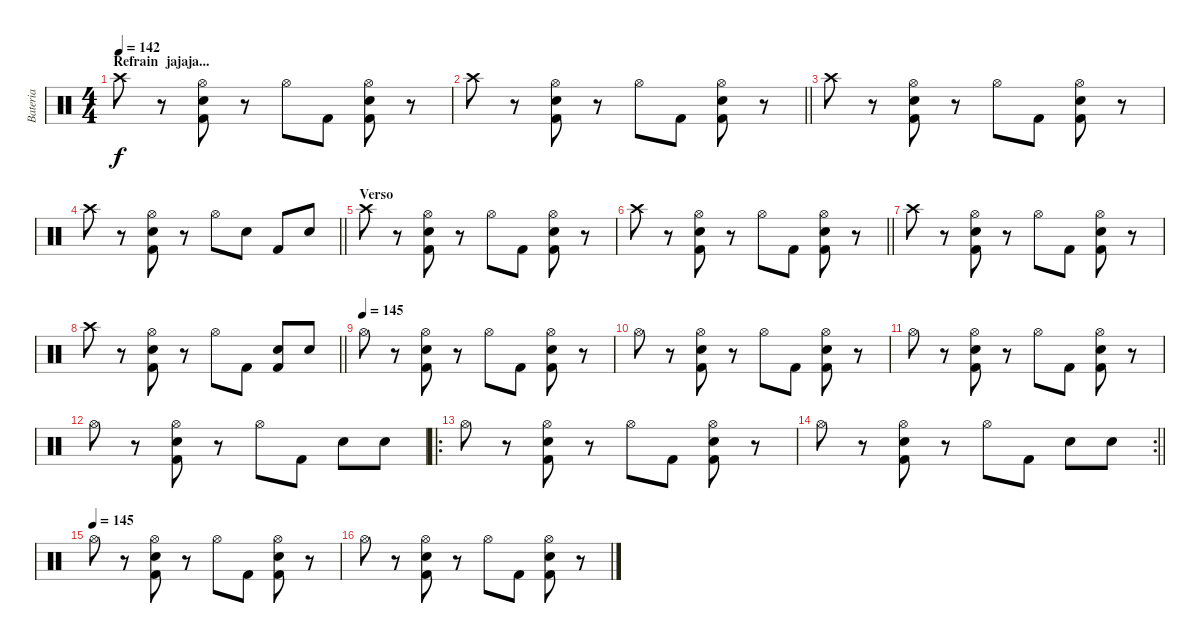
\track ("Bateria" "Bateria") {instrument percussion}
\staff {score}
\articulation defaults
\ts (4 4)
\section ("" "Refrain  jajaja...")
\tempo 142
\clef neutral
\ks c "Crash high (hit)".8{dy f}
r.8 ("Hi-Hat (open)" "Electric Snare (hit)" "Kick (hit) 2").8 r.8 "Hi-Hat (open)".8 "Kick (hit) 2".8 ("Hi-Hat (open)" "Electric Snare (hit)" "Kick (hit) 2").8 r.8 |
\barLineRight lightlight "Crash high (hit)".8
r.8 ("Hi-Hat (open)" "Electric Snare (hit)" "Kick (hit) 2").8 r.8 "Hi-Hat (open)".8 "Kick (hit) 2".8 ("Hi-Hat (open)" "Electric Snare (hit)" "Kick (hit) 2").8 r.8 |
"Crash high (hit)".8 r.8 ("Hi-Hat (open)" "Electric Snare (hit)" "Kick (hit) 2").8 r.8 "Hi-Hat (open)".8 "Kick (hit) 2".8 ("Hi-Hat (open)" "Electric Snare (hit)" "Kick (hit) 2").8 r.8 |
\barLineRight lightlight "Crash high (hit)".8
r.8 ("Hi-Hat (open)" "Electric Snare (hit)" "Kick (hit) 2").8 r.8 "Hi-Hat (open)".8 "Electric Snare (hit)".8 "Kick (hit) 2".8 "Electric Snare (hit)".8 |
\section ("" "Verso")
"Crash high (hit)".8 r.8 ("Hi-Hat (open)" "Electric Snare (hit)" "Kick (hit) 2").8 r.8 "Hi-Hat (open)".8 "Kick (hit) 2".8 ("Hi-Hat (open)" "Electric Snare (hit)" "Kick (hit) 2").8 r.8 |
\barLineRight lightlight "Crash high (hit)".8
r.8 ("Hi-Hat (open)" "Electric Snare (hit)" "Kick (hit) 2").8 r.8 "Hi-Hat (open)".8 "Kick (hit) 2".8 ("Hi-Hat (open)" "Electric Snare (hit)" "Kick (hit) 2").8 r.8 |
"Crash high (hit)".8 r.8 ("Hi-Hat (open)" "Electric Snare (hit)" "Kick (hit) 2").8 r.8 "Hi-Hat (open)".8 "Kick (hit) 2".8 ("Hi-Hat (open)" "Electric Snare (hit)" "Kick (hit) 2").8 r.8 |
\barLineRight lightlight "Crash high (hit)".8
r.8 ("Hi-Hat (open)" "Electric Snare (hit)" "Kick (hit) 2").8 r.8 "Hi-Hat (open)".8 "Kick (hit) 2".8 ("Electric Snare (hit)" "Kick (hit) 2").8 "Electric Snare (hit)".8 |
\tempo (145)
"Hi-Hat (open)".8 r.8 ("Hi-Hat (open)" "Electric Snare (hit)" "Kick (hit) 2").8 r.8 "Hi-Hat (open)".8 "Kick (hit) 2".8 ("Hi-Hat (open)" "Electric Snare (hit)" "Kick (hit) 2").8 r.8 |
"Hi-Hat (open)".8 r.8 ("Hi-Hat (open)" "Electric Snare (hit)" "Kick (hit) 2").8 r.8 "Hi-Hat (open)".8 "Kick (hit) 2".8 ("Hi-Hat (open)" "Electric Snare (hit)" "Kick (hit) 2").8 r.8 |
"Hi-Hat (open)".8 r.8 ("Hi-Hat (open)" "Electric Snare (hit)" "Kick (hit) 2").8 r.8 "Hi-Hat (open)".8 "Kick (hit) 2".8 ("Hi-Hat (open)" "Electric Snare (hit)" "Kick (hit) 2").8 r.8 |
"Hi-Hat (open)".8 r.8 ("Hi-Hat (open)" "Electric Snare (hit)" "Kick (hit) 2").8 r.8 "Hi-Hat (open)".8 "Kick (hit) 2".8 "Electric Snare (hit)".8 "Electric Snare (hit)".8 |
\ro "Hi-Hat (open)".8
r.8 ("Hi-Hat (open)" "Electric Snare (hit)" "Kick (hit) 2").8 r.8 "Hi-Hat (open)".8 "Kick (hit) 2".8 ("Hi-Hat (open)" "Electric Snare (hit)" "Kick (hit) 2").8 r.8 |
\rc 2
\barLineRight lightlight "Hi-Hat (open)".8
r.8 ("Hi-Hat (open)" "Electric Snare (hit)" "Kick (hit) 2").8 r.8 "Hi-Hat (open)".8 "Kick (hit) 2".8 "Electric Snare (hit)".8 "Electric Snare (hit)".8 |
\tempo (145)
"Hi-Hat (open)".8 r.8 ("Hi-Hat (open)" "Electric Snare (hit)" "Kick (hit) 2").8 r.8 "Hi-Hat (open)".8 "Kick (hit) 2".8 ("Hi-Hat (open)" "Electric Snare (hit)" "Kick (hit) 2").8 r.8 |
"Hi-Hat (open)".8 r.8 ("Hi-Hat (open)" "Electric Snare (hit)" "Kick (hit) 2").8 r.8 "Hi-Hat (open)".8 "Kick (hit) 2".8 ("Hi-Hat (open)" "Electric Snare (hit)" "Kick (hit) 2").8 r.8
